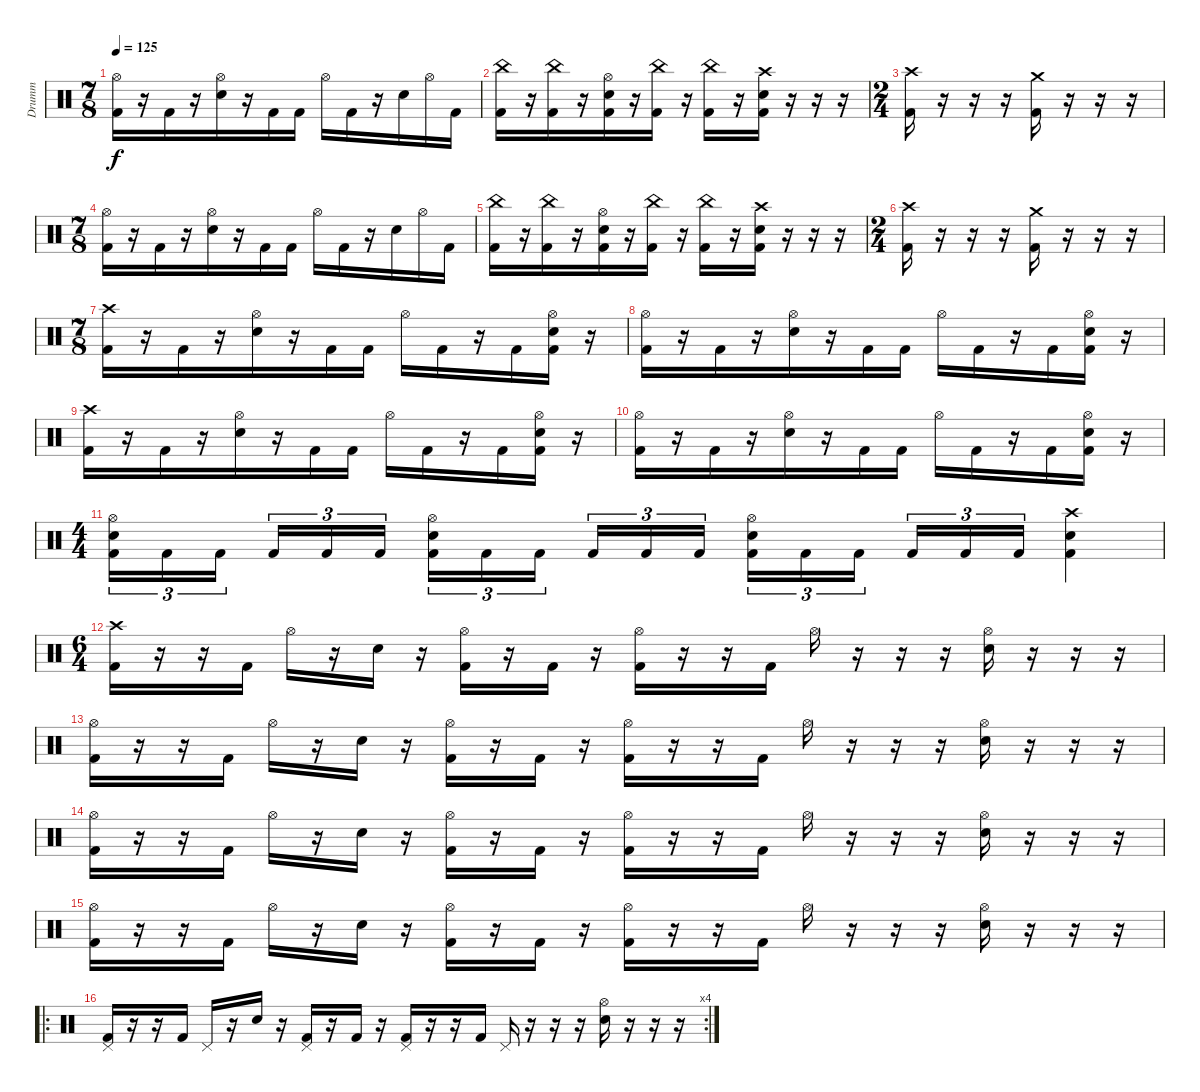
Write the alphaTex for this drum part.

\track ("Drumm" "Drumm") {instrument percussion}
\staff {score}
\articulation defaults
\ts (7 8)
\tempo 125
\clef neutral
\ks c
("Hi-Hat (open)" "Kick (hit) 2").16{dy f} r.16 "Kick (hit) 2".16 r.16 ("Hi-Hat (open)" "Electric Snare (hit)").16 r.16 "Kick (hit) 2".16 "Kick (hit) 2".16 "Hi-Hat (open)".16 "Kick (hit) 2".16 r.16 "Electric Snare (hit)".16 "Hi-Hat (open)".16 "Kick (hit) 2".16 |
("China (hit)" "Kick (hit) 2").16 r.16 ("China (hit)" "Kick (hit) 2").16 r.16 ("Hi-Hat (open)" "Electric Snare (hit)" "Kick (hit) 2").16 r.16 ("China (hit)" "Kick (hit) 2").16 r.16 ("China (hit)" "Kick (hit) 2").16 r.16 ("Crash high (hit)" "Electric Snare (hit)" "Kick (hit) 2").16 r.16 r.16 r.16 |
\ts (2 4)
("Crash high (hit)" "Kick (hit) 2").16 r.16 r.16 r.16 ("Crash medium (hit)" "Kick (hit) 2").16 r.16 r.16 r.16 |
\ts (7 8)
("Hi-Hat (open)" "Kick (hit) 2").16 r.16 "Kick (hit) 2".16 r.16 ("Hi-Hat (open)" "Electric Snare (hit)").16 r.16 "Kick (hit) 2".16 "Kick (hit) 2".16 "Hi-Hat (open)".16 "Kick (hit) 2".16 r.16 "Electric Snare (hit)".16 "Hi-Hat (open)".16 "Kick (hit) 2".16 |
("China (hit)" "Kick (hit) 2").16 r.16 ("China (hit)" "Kick (hit) 2").16 r.16 ("Hi-Hat (open)" "Electric Snare (hit)" "Kick (hit) 2").16 r.16 ("China (hit)" "Kick (hit) 2").16 r.16 ("China (hit)" "Kick (hit) 2").16 r.16 ("Crash high (hit)" "Electric Snare (hit)" "Kick (hit) 2").16 r.16 r.16 r.16 |
\ts (2 4)
("Crash high (hit)" "Kick (hit) 2").16 r.16 r.16 r.16 ("Crash medium (hit)" "Kick (hit) 2").16 r.16 r.16 r.16 |
\ts (7 8)
("Crash high (hit)" "Kick (hit) 2").16 r.16 "Kick (hit) 2".16 r.16 ("Hi-Hat (open)" "Electric Snare (hit)").16 r.16 "Kick (hit) 2".16 "Kick (hit) 2".16 "Hi-Hat (open)".16 "Kick (hit) 2".16 r.16 "Kick (hit) 2".16 ("Hi-Hat (open)" "Electric Snare (hit)" "Kick (hit) 2").16 r.16 |
("Hi-Hat (open)" "Kick (hit) 2").16 r.16 "Kick (hit) 2".16 r.16 ("Hi-Hat (open)" "Electric Snare (hit)").16 r.16 "Kick (hit) 2".16 "Kick (hit) 2".16 "Hi-Hat (open)".16 "Kick (hit) 2".16 r.16 "Kick (hit) 2".16 ("Hi-Hat (open)" "Electric Snare (hit)" "Kick (hit) 2").16 r.16 |
("Crash high (hit)" "Kick (hit) 2").16 r.16 "Kick (hit) 2".16 r.16 ("Hi-Hat (open)" "Electric Snare (hit)").16 r.16 "Kick (hit) 2".16 "Kick (hit) 2".16 "Hi-Hat (open)".16 "Kick (hit) 2".16 r.16 "Kick (hit) 2".16 ("Hi-Hat (open)" "Electric Snare (hit)" "Kick (hit) 2").16 r.16 |
("Hi-Hat (open)" "Kick (hit) 2").16 r.16 "Kick (hit) 2".16 r.16 ("Hi-Hat (open)" "Electric Snare (hit)").16 r.16 "Kick (hit) 2".16 "Kick (hit) 2".16 "Hi-Hat (open)".16 "Kick (hit) 2".16 r.16 "Kick (hit) 2".16 ("Hi-Hat (open)" "Electric Snare (hit)" "Kick (hit) 2").16 r.16 |
\ts (4 4)
("Hi-Hat (open)" "Electric Snare (hit)" "Kick (hit) 2").16{tu (3 2)} "Kick (hit) 2".16{tu (3 2)} "Kick (hit) 2".16{tu (3 2)} "Kick (hit) 2".16{tu (3 2)} "Kick (hit) 2".16{tu (3 2)} "Kick (hit) 2".16{tu (3 2)} ("Hi-Hat (open)" "Electric Snare (hit)" "Kick (hit) 2").16{tu (3 2)} "Kick (hit) 2".16{tu (3 2)} "Kick (hit) 2".16{tu (3 2)} "Kick (hit) 2".16{tu (3 2)} "Kick (hit) 2".16{tu (3 2)} "Kick (hit) 2".16{tu (3 2)} ("Hi-Hat (open)" "Electric Snare (hit)" "Kick (hit) 2").16{tu (3 2)} "Kick (hit) 2".16{tu (3 2)} "Kick (hit) 2".16{tu (3 2)} "Kick (hit) 2".16{tu (3 2)} "Kick (hit) 2".16{tu (3 2)} "Kick (hit) 2".16{tu (3 2)} ("Crash high (hit)" "Electric Snare (hit)" "Kick (hit) 2").4 |
\ts (6 4)
("Crash high (hit)" "Kick (hit) 2").16 r.16 r.16 "Kick (hit) 2".16 "Hi-Hat (open)".16 r.16 "Electric Snare (hit)".16 r.16 ("Hi-Hat (open)" "Kick (hit) 2").16 r.16 "Kick (hit) 2".16 r.16 ("Hi-Hat (open)" "Kick (hit) 2").16 r.16 r.16 "Kick (hit) 2".16 "Hi-Hat (open)".16 r.16 r.16 r.16 ("Hi-Hat (open)" "Electric Snare (hit)").16 r.16 r.16 r.16 |
("Hi-Hat (open)" "Kick (hit) 2").16 r.16 r.16 "Kick (hit) 2".16 "Hi-Hat (open)".16 r.16 "Electric Snare (hit)".16 r.16 ("Hi-Hat (open)" "Kick (hit) 2").16 r.16 "Kick (hit) 2".16 r.16 ("Hi-Hat (open)" "Kick (hit) 2").16 r.16 r.16 "Kick (hit) 2".16 "Hi-Hat (open)".16 r.16 r.16 r.16 ("Hi-Hat (open)" "Electric Snare (hit)").16 r.16 r.16 r.16 |
("Hi-Hat (open)" "Kick (hit) 2").16 r.16 r.16 "Kick (hit) 2".16 "Hi-Hat (open)".16 r.16 "Electric Snare (hit)".16 r.16 ("Hi-Hat (open)" "Kick (hit) 2").16 r.16 "Kick (hit) 2".16 r.16 ("Hi-Hat (open)" "Kick (hit) 2").16 r.16 r.16 "Kick (hit) 2".16 "Hi-Hat (open)".16 r.16 r.16 r.16 ("Hi-Hat (open)" "Electric Snare (hit)").16 r.16 r.16 r.16 |
("Hi-Hat (open)" "Kick (hit) 2").16 r.16 r.16 "Kick (hit) 2".16 "Hi-Hat (open)".16 r.16 "Electric Snare (hit)".16 r.16 ("Hi-Hat (open)" "Kick (hit) 2").16 r.16 "Kick (hit) 2".16 r.16 ("Hi-Hat (open)" "Kick (hit) 2").16 r.16 r.16 "Kick (hit) 2".16 "Hi-Hat (open)".16 r.16 r.16 r.16 ("Hi-Hat (open)" "Electric Snare (hit)").16 r.16 r.16 r.16 |
\ro
\rc 4
("Pedal Hi-Hat (hit)" "Kick (hit) 2").16 r.16 r.16 "Kick (hit) 2".16 "Pedal Hi-Hat (hit)".16 r.16 "Electric Snare (hit)".16 r.16 ("Pedal Hi-Hat (hit)" "Kick (hit) 2").16 r.16 "Kick (hit) 2".16 r.16 ("Pedal Hi-Hat (hit)" "Kick (hit) 2").16 r.16 r.16 "Kick (hit) 2".16 "Pedal Hi-Hat (hit)".16 r.16 r.16 r.16 ("Hi-Hat (open)" "Electric Snare (hit)").16 r.16 r.16 r.16
